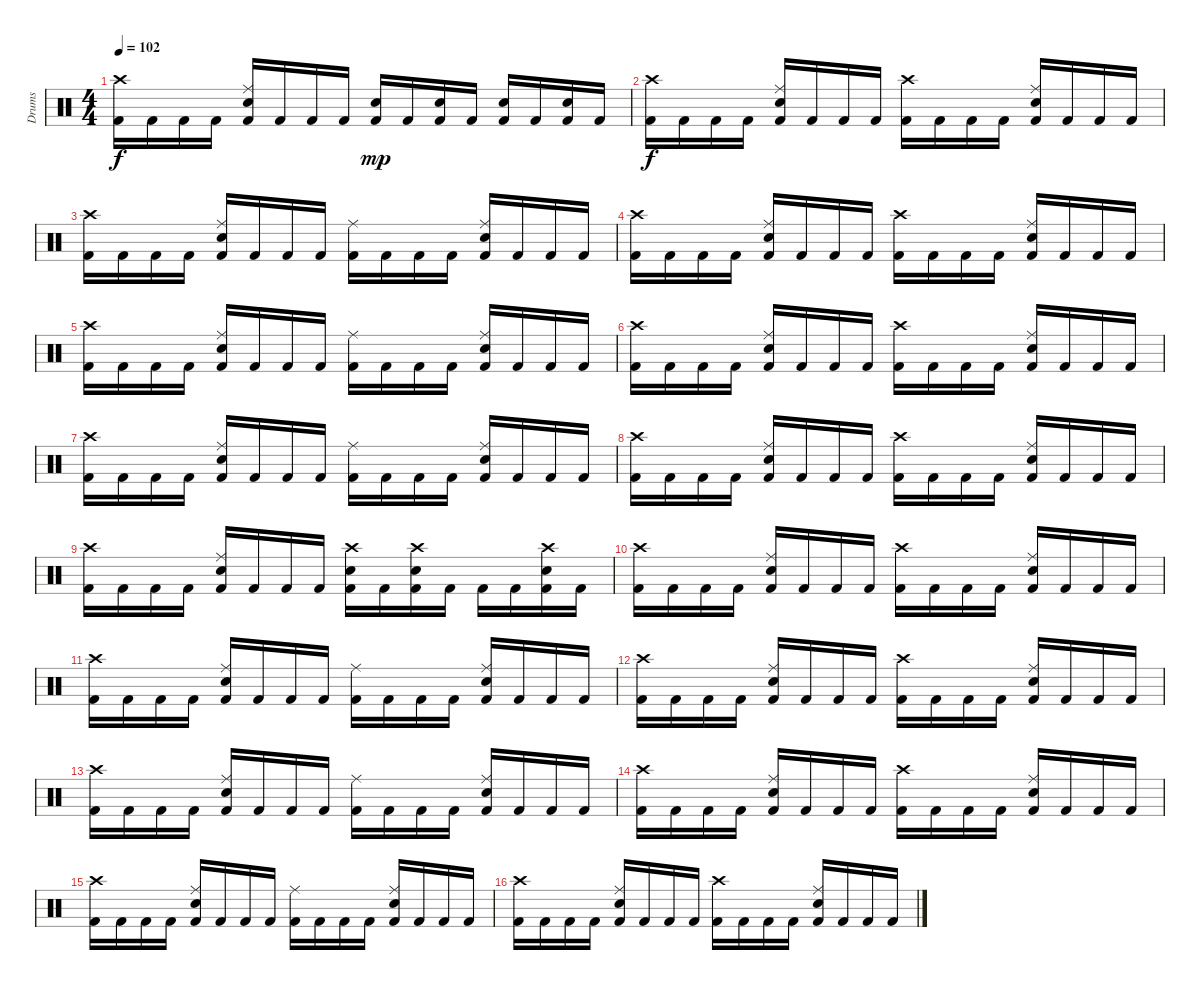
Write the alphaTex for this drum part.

\track ("Drums" "Drums") {instrument percussion}
\staff {score}
\articulation defaults
\ts (4 4)
\tempo 102
\clef neutral
\ks c
("Crash high (hit)" "Kick (hit) 2").16{dy f} "Kick (hit) 2".16 "Kick (hit) 2".16 "Kick (hit) 2".16 ("Ride (middle)" "Snare (hit) 2" "Kick (hit) 2").16 "Kick (hit) 2".16 "Kick (hit) 2".16 "Kick (hit) 2".16 ("Snare (hit) 2" "Kick (hit) 2").16{dy mp} "Kick (hit) 2".16 ("Snare (hit) 2" "Kick (hit) 2").16 "Kick (hit) 2".16 ("Snare (hit) 2" "Kick (hit) 2").16 "Kick (hit) 2".16 ("Snare (hit) 2" "Kick (hit) 2").16 "Kick (hit) 2".16 |
("Crash high (hit)" "Kick (hit) 2").16{dy f} "Kick (hit) 2".16 "Kick (hit) 2".16 "Kick (hit) 2".16 ("Ride (middle)" "Snare (hit) 2" "Kick (hit) 2").16 "Kick (hit) 2".16 "Kick (hit) 2".16 "Kick (hit) 2".16 ("Crash high (hit)" "Kick (hit) 2").16 "Kick (hit) 2".16 "Kick (hit) 2".16 "Kick (hit) 2".16 ("Ride (middle)" "Snare (hit) 2" "Kick (hit) 2").16 "Kick (hit) 2".16 "Kick (hit) 2".16 "Kick (hit) 2".16 |
("Crash high (hit)" "Kick (hit) 2").16 "Kick (hit) 2".16 "Kick (hit) 2".16 "Kick (hit) 2".16 ("Ride (middle)" "Snare (hit) 2" "Kick (hit) 2").16 "Kick (hit) 2".16 "Kick (hit) 2".16 "Kick (hit) 2".16 ("Ride (middle)" "Kick (hit) 2").16 "Kick (hit) 2".16 "Kick (hit) 2".16 "Kick (hit) 2".16 ("Ride (middle)" "Snare (hit) 2" "Kick (hit) 2").16 "Kick (hit) 2".16 "Kick (hit) 2".16 "Kick (hit) 2".16 |
("Crash high (hit)" "Kick (hit) 2").16 "Kick (hit) 2".16 "Kick (hit) 2".16 "Kick (hit) 2".16 ("Ride (middle)" "Snare (hit) 2" "Kick (hit) 2").16 "Kick (hit) 2".16 "Kick (hit) 2".16 "Kick (hit) 2".16 ("Crash high (hit)" "Kick (hit) 2").16 "Kick (hit) 2".16 "Kick (hit) 2".16 "Kick (hit) 2".16 ("Ride (middle)" "Snare (hit) 2" "Kick (hit) 2").16 "Kick (hit) 2".16 "Kick (hit) 2".16 "Kick (hit) 2".16 |
("Crash high (hit)" "Kick (hit) 2").16 "Kick (hit) 2".16 "Kick (hit) 2".16 "Kick (hit) 2".16 ("Ride (middle)" "Snare (hit) 2" "Kick (hit) 2").16 "Kick (hit) 2".16 "Kick (hit) 2".16 "Kick (hit) 2".16 ("Ride (middle)" "Kick (hit) 2").16 "Kick (hit) 2".16 "Kick (hit) 2".16 "Kick (hit) 2".16 ("Ride (middle)" "Snare (hit) 2" "Kick (hit) 2").16 "Kick (hit) 2".16 "Kick (hit) 2".16 "Kick (hit) 2".16 |
("Crash high (hit)" "Kick (hit) 2").16 "Kick (hit) 2".16 "Kick (hit) 2".16 "Kick (hit) 2".16 ("Ride (middle)" "Snare (hit) 2" "Kick (hit) 2").16 "Kick (hit) 2".16 "Kick (hit) 2".16 "Kick (hit) 2".16 ("Crash high (hit)" "Kick (hit) 2").16 "Kick (hit) 2".16 "Kick (hit) 2".16 "Kick (hit) 2".16 ("Ride (middle)" "Snare (hit) 2" "Kick (hit) 2").16 "Kick (hit) 2".16 "Kick (hit) 2".16 "Kick (hit) 2".16 |
("Crash high (hit)" "Kick (hit) 2").16 "Kick (hit) 2".16 "Kick (hit) 2".16 "Kick (hit) 2".16 ("Ride (middle)" "Snare (hit) 2" "Kick (hit) 2").16 "Kick (hit) 2".16 "Kick (hit) 2".16 "Kick (hit) 2".16 ("Ride (middle)" "Kick (hit) 2").16 "Kick (hit) 2".16 "Kick (hit) 2".16 "Kick (hit) 2".16 ("Ride (middle)" "Snare (hit) 2" "Kick (hit) 2").16 "Kick (hit) 2".16 "Kick (hit) 2".16 "Kick (hit) 2".16 |
("Crash high (hit)" "Kick (hit) 2").16 "Kick (hit) 2".16 "Kick (hit) 2".16 "Kick (hit) 2".16 ("Ride (middle)" "Snare (hit) 2" "Kick (hit) 2").16 "Kick (hit) 2".16 "Kick (hit) 2".16 "Kick (hit) 2".16 ("Crash high (hit)" "Kick (hit) 2").16 "Kick (hit) 2".16 "Kick (hit) 2".16 "Kick (hit) 2".16 ("Ride (middle)" "Snare (hit) 2" "Kick (hit) 2").16 "Kick (hit) 2".16 "Kick (hit) 2".16 "Kick (hit) 2".16 |
("Crash high (hit)" "Kick (hit) 2").16 "Kick (hit) 2".16 "Kick (hit) 2".16 "Kick (hit) 2".16 ("Ride (middle)" "Snare (hit) 2" "Kick (hit) 2").16 "Kick (hit) 2".16 "Kick (hit) 2".16 "Kick (hit) 2".16 ("Crash high (hit)" "Snare (hit) 2" "Kick (hit) 2").16 "Kick (hit) 2".16 ("Crash high (hit)" "Snare (hit) 2" "Kick (hit) 2").16 "Kick (hit) 2".16 "Kick (hit) 2".16 "Kick (hit) 2".16 ("Crash high (hit)" "Snare (hit) 2" "Kick (hit) 2").16 "Kick (hit) 2".16 |
("Crash high (hit)" "Kick (hit) 2").16 "Kick (hit) 2".16 "Kick (hit) 2".16 "Kick (hit) 2".16 ("Ride (middle)" "Snare (hit) 2" "Kick (hit) 2").16 "Kick (hit) 2".16 "Kick (hit) 2".16 "Kick (hit) 2".16 ("Crash high (hit)" "Kick (hit) 2").16 "Kick (hit) 2".16 "Kick (hit) 2".16 "Kick (hit) 2".16 ("Ride (middle)" "Snare (hit) 2" "Kick (hit) 2").16 "Kick (hit) 2".16 "Kick (hit) 2".16 "Kick (hit) 2".16 |
("Crash high (hit)" "Kick (hit) 2").16 "Kick (hit) 2".16 "Kick (hit) 2".16 "Kick (hit) 2".16 ("Ride (middle)" "Snare (hit) 2" "Kick (hit) 2").16 "Kick (hit) 2".16 "Kick (hit) 2".16 "Kick (hit) 2".16 ("Ride (middle)" "Kick (hit) 2").16 "Kick (hit) 2".16 "Kick (hit) 2".16 "Kick (hit) 2".16 ("Ride (middle)" "Snare (hit) 2" "Kick (hit) 2").16 "Kick (hit) 2".16 "Kick (hit) 2".16 "Kick (hit) 2".16 |
("Crash high (hit)" "Kick (hit) 2").16 "Kick (hit) 2".16 "Kick (hit) 2".16 "Kick (hit) 2".16 ("Ride (middle)" "Snare (hit) 2" "Kick (hit) 2").16 "Kick (hit) 2".16 "Kick (hit) 2".16 "Kick (hit) 2".16 ("Crash high (hit)" "Kick (hit) 2").16 "Kick (hit) 2".16 "Kick (hit) 2".16 "Kick (hit) 2".16 ("Ride (middle)" "Snare (hit) 2" "Kick (hit) 2").16 "Kick (hit) 2".16 "Kick (hit) 2".16 "Kick (hit) 2".16 |
("Crash high (hit)" "Kick (hit) 2").16 "Kick (hit) 2".16 "Kick (hit) 2".16 "Kick (hit) 2".16 ("Ride (middle)" "Snare (hit) 2" "Kick (hit) 2").16 "Kick (hit) 2".16 "Kick (hit) 2".16 "Kick (hit) 2".16 ("Ride (middle)" "Kick (hit) 2").16 "Kick (hit) 2".16 "Kick (hit) 2".16 "Kick (hit) 2".16 ("Ride (middle)" "Snare (hit) 2" "Kick (hit) 2").16 "Kick (hit) 2".16 "Kick (hit) 2".16 "Kick (hit) 2".16 |
("Crash high (hit)" "Kick (hit) 2").16 "Kick (hit) 2".16 "Kick (hit) 2".16 "Kick (hit) 2".16 ("Ride (middle)" "Snare (hit) 2" "Kick (hit) 2").16 "Kick (hit) 2".16 "Kick (hit) 2".16 "Kick (hit) 2".16 ("Crash high (hit)" "Kick (hit) 2").16 "Kick (hit) 2".16 "Kick (hit) 2".16 "Kick (hit) 2".16 ("Ride (middle)" "Snare (hit) 2" "Kick (hit) 2").16 "Kick (hit) 2".16 "Kick (hit) 2".16 "Kick (hit) 2".16 |
("Crash high (hit)" "Kick (hit) 2").16 "Kick (hit) 2".16 "Kick (hit) 2".16 "Kick (hit) 2".16 ("Ride (middle)" "Snare (hit) 2" "Kick (hit) 2").16 "Kick (hit) 2".16 "Kick (hit) 2".16 "Kick (hit) 2".16 ("Ride (middle)" "Kick (hit) 2").16 "Kick (hit) 2".16 "Kick (hit) 2".16 "Kick (hit) 2".16 ("Ride (middle)" "Snare (hit) 2" "Kick (hit) 2").16 "Kick (hit) 2".16 "Kick (hit) 2".16 "Kick (hit) 2".16 |
("Crash high (hit)" "Kick (hit) 2").16 "Kick (hit) 2".16 "Kick (hit) 2".16 "Kick (hit) 2".16 ("Ride (middle)" "Snare (hit) 2" "Kick (hit) 2").16 "Kick (hit) 2".16 "Kick (hit) 2".16 "Kick (hit) 2".16 ("Crash high (hit)" "Kick (hit) 2").16 "Kick (hit) 2".16 "Kick (hit) 2".16 "Kick (hit) 2".16 ("Ride (middle)" "Snare (hit) 2" "Kick (hit) 2").16 "Kick (hit) 2".16 "Kick (hit) 2".16 "Kick (hit) 2".16
